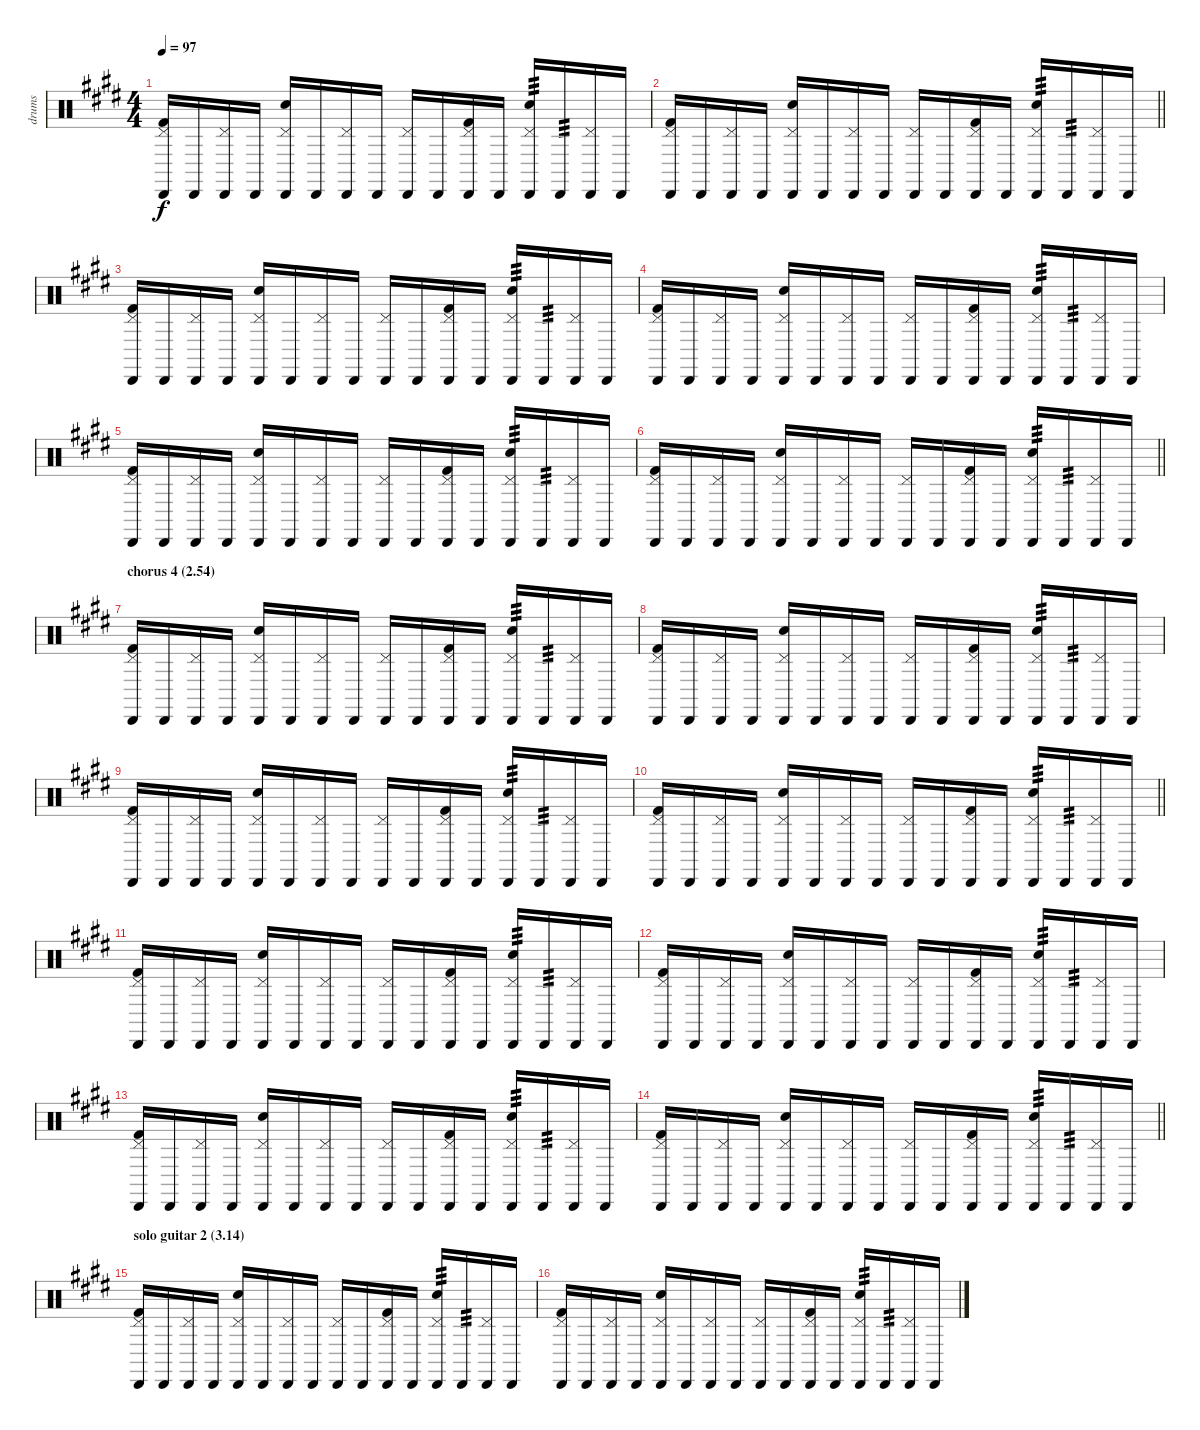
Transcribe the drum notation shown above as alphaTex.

\track ("drums" "drums") {instrument percussion}
\staff {score}
\articulation defaults
\ts (4 4)
\tempo 97
\clef neutral
\ks e
("Pedal Hi-Hat (hit)" "Cabasa (hit)" "Kick (hit) 2").16{dy f} "Cabasa (hit)".16 ("Pedal Hi-Hat (hit)" "Cabasa (hit)").16 "Cabasa (hit)".16 ("Pedal Hi-Hat (hit)" "Cabasa (hit)" "Electric Snare (hit)").16 "Cabasa (hit)".16 ("Pedal Hi-Hat (hit)" "Cabasa (hit)").16 "Cabasa (hit)".16 ("Pedal Hi-Hat (hit)" "Cabasa (hit)").16 "Cabasa (hit)".16 ("Pedal Hi-Hat (hit)" "Cabasa (hit)" "Kick (hit) 2").16 "Cabasa (hit)".16 ("Pedal Hi-Hat (hit)" "Cabasa (hit)" "Electric Snare (hit)").16{tp 3} "Cabasa (hit)".16{tp 3} ("Pedal Hi-Hat (hit)" "Cabasa (hit)").16 "Cabasa (hit)".16 |
\barLineRight lightlight
("Pedal Hi-Hat (hit)" "Cabasa (hit)" "Kick (hit) 2").16 "Cabasa (hit)".16 ("Pedal Hi-Hat (hit)" "Cabasa (hit)").16 "Cabasa (hit)".16 ("Pedal Hi-Hat (hit)" "Cabasa (hit)" "Electric Snare (hit)").16 "Cabasa (hit)".16 ("Pedal Hi-Hat (hit)" "Cabasa (hit)").16 "Cabasa (hit)".16 ("Pedal Hi-Hat (hit)" "Cabasa (hit)").16 "Cabasa (hit)".16 ("Pedal Hi-Hat (hit)" "Cabasa (hit)" "Kick (hit) 2").16 "Cabasa (hit)".16 ("Pedal Hi-Hat (hit)" "Cabasa (hit)" "Electric Snare (hit)").16{tp 3} "Cabasa (hit)".16{tp 3} ("Pedal Hi-Hat (hit)" "Cabasa (hit)").16 "Cabasa (hit)".16 |
("Pedal Hi-Hat (hit)" "Cabasa (hit)" "Kick (hit) 2").16 "Cabasa (hit)".16 ("Pedal Hi-Hat (hit)" "Cabasa (hit)").16 "Cabasa (hit)".16 ("Pedal Hi-Hat (hit)" "Cabasa (hit)" "Electric Snare (hit)").16 "Cabasa (hit)".16 ("Pedal Hi-Hat (hit)" "Cabasa (hit)").16 "Cabasa (hit)".16 ("Pedal Hi-Hat (hit)" "Cabasa (hit)").16 "Cabasa (hit)".16 ("Pedal Hi-Hat (hit)" "Cabasa (hit)" "Kick (hit) 2").16 "Cabasa (hit)".16 ("Pedal Hi-Hat (hit)" "Cabasa (hit)" "Electric Snare (hit)").16{tp 3} "Cabasa (hit)".16{tp 3} ("Pedal Hi-Hat (hit)" "Cabasa (hit)").16 "Cabasa (hit)".16 |
("Pedal Hi-Hat (hit)" "Cabasa (hit)" "Kick (hit) 2").16 "Cabasa (hit)".16 ("Pedal Hi-Hat (hit)" "Cabasa (hit)").16 "Cabasa (hit)".16 ("Pedal Hi-Hat (hit)" "Cabasa (hit)" "Electric Snare (hit)").16 "Cabasa (hit)".16 ("Pedal Hi-Hat (hit)" "Cabasa (hit)").16 "Cabasa (hit)".16 ("Pedal Hi-Hat (hit)" "Cabasa (hit)").16 "Cabasa (hit)".16 ("Pedal Hi-Hat (hit)" "Cabasa (hit)" "Kick (hit) 2").16 "Cabasa (hit)".16 ("Pedal Hi-Hat (hit)" "Cabasa (hit)" "Electric Snare (hit)").16{tp 3} "Cabasa (hit)".16{tp 3} ("Pedal Hi-Hat (hit)" "Cabasa (hit)").16 "Cabasa (hit)".16 |
("Pedal Hi-Hat (hit)" "Cabasa (hit)" "Kick (hit) 2").16 "Cabasa (hit)".16 ("Pedal Hi-Hat (hit)" "Cabasa (hit)").16 "Cabasa (hit)".16 ("Pedal Hi-Hat (hit)" "Cabasa (hit)" "Electric Snare (hit)").16 "Cabasa (hit)".16 ("Pedal Hi-Hat (hit)" "Cabasa (hit)").16 "Cabasa (hit)".16 ("Pedal Hi-Hat (hit)" "Cabasa (hit)").16 "Cabasa (hit)".16 ("Pedal Hi-Hat (hit)" "Cabasa (hit)" "Kick (hit) 2").16 "Cabasa (hit)".16 ("Pedal Hi-Hat (hit)" "Cabasa (hit)" "Electric Snare (hit)").16{tp 3} "Cabasa (hit)".16{tp 3} ("Pedal Hi-Hat (hit)" "Cabasa (hit)").16 "Cabasa (hit)".16 |
\barLineRight lightlight
("Pedal Hi-Hat (hit)" "Cabasa (hit)" "Kick (hit) 2").16 "Cabasa (hit)".16 ("Pedal Hi-Hat (hit)" "Cabasa (hit)").16 "Cabasa (hit)".16 ("Pedal Hi-Hat (hit)" "Cabasa (hit)" "Electric Snare (hit)").16 "Cabasa (hit)".16 ("Pedal Hi-Hat (hit)" "Cabasa (hit)").16 "Cabasa (hit)".16 ("Pedal Hi-Hat (hit)" "Cabasa (hit)").16 "Cabasa (hit)".16 ("Pedal Hi-Hat (hit)" "Cabasa (hit)" "Kick (hit) 2").16 "Cabasa (hit)".16 ("Pedal Hi-Hat (hit)" "Cabasa (hit)" "Electric Snare (hit)").16{tp 3} "Cabasa (hit)".16{tp 3} ("Pedal Hi-Hat (hit)" "Cabasa (hit)").16 "Cabasa (hit)".16 |
\section ("" "chorus 4 (2.54)")
("Pedal Hi-Hat (hit)" "Cabasa (hit)" "Kick (hit) 2").16 "Cabasa (hit)".16 ("Pedal Hi-Hat (hit)" "Cabasa (hit)").16 "Cabasa (hit)".16 ("Pedal Hi-Hat (hit)" "Cabasa (hit)" "Electric Snare (hit)").16 "Cabasa (hit)".16 ("Pedal Hi-Hat (hit)" "Cabasa (hit)").16 "Cabasa (hit)".16 ("Pedal Hi-Hat (hit)" "Cabasa (hit)").16 "Cabasa (hit)".16 ("Pedal Hi-Hat (hit)" "Cabasa (hit)" "Kick (hit) 2").16 "Cabasa (hit)".16 ("Pedal Hi-Hat (hit)" "Cabasa (hit)" "Electric Snare (hit)").16{tp 3} "Cabasa (hit)".16{tp 3} ("Pedal Hi-Hat (hit)" "Cabasa (hit)").16 "Cabasa (hit)".16 |
("Pedal Hi-Hat (hit)" "Cabasa (hit)" "Kick (hit) 2").16 "Cabasa (hit)".16 ("Pedal Hi-Hat (hit)" "Cabasa (hit)").16 "Cabasa (hit)".16 ("Pedal Hi-Hat (hit)" "Cabasa (hit)" "Electric Snare (hit)").16 "Cabasa (hit)".16 ("Pedal Hi-Hat (hit)" "Cabasa (hit)").16 "Cabasa (hit)".16 ("Pedal Hi-Hat (hit)" "Cabasa (hit)").16 "Cabasa (hit)".16 ("Pedal Hi-Hat (hit)" "Cabasa (hit)" "Kick (hit) 2").16 "Cabasa (hit)".16 ("Pedal Hi-Hat (hit)" "Cabasa (hit)" "Electric Snare (hit)").16{tp 3} "Cabasa (hit)".16{tp 3} ("Pedal Hi-Hat (hit)" "Cabasa (hit)").16 "Cabasa (hit)".16 |
("Pedal Hi-Hat (hit)" "Cabasa (hit)" "Kick (hit) 2").16 "Cabasa (hit)".16 ("Pedal Hi-Hat (hit)" "Cabasa (hit)").16 "Cabasa (hit)".16 ("Pedal Hi-Hat (hit)" "Cabasa (hit)" "Electric Snare (hit)").16 "Cabasa (hit)".16 ("Pedal Hi-Hat (hit)" "Cabasa (hit)").16 "Cabasa (hit)".16 ("Pedal Hi-Hat (hit)" "Cabasa (hit)").16 "Cabasa (hit)".16 ("Pedal Hi-Hat (hit)" "Cabasa (hit)" "Kick (hit) 2").16 "Cabasa (hit)".16 ("Pedal Hi-Hat (hit)" "Cabasa (hit)" "Electric Snare (hit)").16{tp 3} "Cabasa (hit)".16{tp 3} ("Pedal Hi-Hat (hit)" "Cabasa (hit)").16 "Cabasa (hit)".16 |
\barLineRight lightlight
("Pedal Hi-Hat (hit)" "Cabasa (hit)" "Kick (hit) 2").16 "Cabasa (hit)".16 ("Pedal Hi-Hat (hit)" "Cabasa (hit)").16 "Cabasa (hit)".16 ("Pedal Hi-Hat (hit)" "Cabasa (hit)" "Electric Snare (hit)").16 "Cabasa (hit)".16 ("Pedal Hi-Hat (hit)" "Cabasa (hit)").16 "Cabasa (hit)".16 ("Pedal Hi-Hat (hit)" "Cabasa (hit)").16 "Cabasa (hit)".16 ("Pedal Hi-Hat (hit)" "Cabasa (hit)" "Kick (hit) 2").16 "Cabasa (hit)".16 ("Pedal Hi-Hat (hit)" "Cabasa (hit)" "Electric Snare (hit)").16{tp 3} "Cabasa (hit)".16{tp 3} ("Pedal Hi-Hat (hit)" "Cabasa (hit)").16 "Cabasa (hit)".16 |
("Pedal Hi-Hat (hit)" "Cabasa (hit)" "Kick (hit) 2").16 "Cabasa (hit)".16 ("Pedal Hi-Hat (hit)" "Cabasa (hit)").16 "Cabasa (hit)".16 ("Pedal Hi-Hat (hit)" "Cabasa (hit)" "Electric Snare (hit)").16 "Cabasa (hit)".16 ("Pedal Hi-Hat (hit)" "Cabasa (hit)").16 "Cabasa (hit)".16 ("Pedal Hi-Hat (hit)" "Cabasa (hit)").16 "Cabasa (hit)".16 ("Pedal Hi-Hat (hit)" "Cabasa (hit)" "Kick (hit) 2").16 "Cabasa (hit)".16 ("Pedal Hi-Hat (hit)" "Cabasa (hit)" "Electric Snare (hit)").16{tp 3} "Cabasa (hit)".16{tp 3} ("Pedal Hi-Hat (hit)" "Cabasa (hit)").16 "Cabasa (hit)".16 |
("Pedal Hi-Hat (hit)" "Cabasa (hit)" "Kick (hit) 2").16 "Cabasa (hit)".16 ("Pedal Hi-Hat (hit)" "Cabasa (hit)").16 "Cabasa (hit)".16 ("Pedal Hi-Hat (hit)" "Cabasa (hit)" "Electric Snare (hit)").16 "Cabasa (hit)".16 ("Pedal Hi-Hat (hit)" "Cabasa (hit)").16 "Cabasa (hit)".16 ("Pedal Hi-Hat (hit)" "Cabasa (hit)").16 "Cabasa (hit)".16 ("Pedal Hi-Hat (hit)" "Cabasa (hit)" "Kick (hit) 2").16 "Cabasa (hit)".16 ("Pedal Hi-Hat (hit)" "Cabasa (hit)" "Electric Snare (hit)").16{tp 3} "Cabasa (hit)".16{tp 3} ("Pedal Hi-Hat (hit)" "Cabasa (hit)").16 "Cabasa (hit)".16 |
("Pedal Hi-Hat (hit)" "Cabasa (hit)" "Kick (hit) 2").16 "Cabasa (hit)".16 ("Pedal Hi-Hat (hit)" "Cabasa (hit)").16 "Cabasa (hit)".16 ("Pedal Hi-Hat (hit)" "Cabasa (hit)" "Electric Snare (hit)").16 "Cabasa (hit)".16 ("Pedal Hi-Hat (hit)" "Cabasa (hit)").16 "Cabasa (hit)".16 ("Pedal Hi-Hat (hit)" "Cabasa (hit)").16 "Cabasa (hit)".16 ("Pedal Hi-Hat (hit)" "Cabasa (hit)" "Kick (hit) 2").16 "Cabasa (hit)".16 ("Pedal Hi-Hat (hit)" "Cabasa (hit)" "Electric Snare (hit)").16{tp 3} "Cabasa (hit)".16{tp 3} ("Pedal Hi-Hat (hit)" "Cabasa (hit)").16 "Cabasa (hit)".16 |
\barLineRight lightlight
("Pedal Hi-Hat (hit)" "Cabasa (hit)" "Kick (hit) 2").16 "Cabasa (hit)".16 ("Pedal Hi-Hat (hit)" "Cabasa (hit)").16 "Cabasa (hit)".16 ("Pedal Hi-Hat (hit)" "Cabasa (hit)" "Electric Snare (hit)").16 "Cabasa (hit)".16 ("Pedal Hi-Hat (hit)" "Cabasa (hit)").16 "Cabasa (hit)".16 ("Pedal Hi-Hat (hit)" "Cabasa (hit)").16 "Cabasa (hit)".16 ("Pedal Hi-Hat (hit)" "Cabasa (hit)" "Kick (hit) 2").16 "Cabasa (hit)".16 ("Pedal Hi-Hat (hit)" "Cabasa (hit)" "Electric Snare (hit)").16{tp 3} "Cabasa (hit)".16{tp 3} ("Pedal Hi-Hat (hit)" "Cabasa (hit)").16 "Cabasa (hit)".16 |
\section ("" "solo guitar 2 (3.14)")
("Pedal Hi-Hat (hit)" "Cabasa (hit)" "Kick (hit) 2").16 "Cabasa (hit)".16 ("Pedal Hi-Hat (hit)" "Cabasa (hit)").16 "Cabasa (hit)".16 ("Pedal Hi-Hat (hit)" "Cabasa (hit)" "Electric Snare (hit)").16 "Cabasa (hit)".16 ("Pedal Hi-Hat (hit)" "Cabasa (hit)").16 "Cabasa (hit)".16 ("Pedal Hi-Hat (hit)" "Cabasa (hit)").16 "Cabasa (hit)".16 ("Pedal Hi-Hat (hit)" "Cabasa (hit)" "Kick (hit) 2").16 "Cabasa (hit)".16 ("Pedal Hi-Hat (hit)" "Cabasa (hit)" "Electric Snare (hit)").16{tp 3} "Cabasa (hit)".16{tp 3} ("Pedal Hi-Hat (hit)" "Cabasa (hit)").16 "Cabasa (hit)".16 |
("Pedal Hi-Hat (hit)" "Cabasa (hit)" "Kick (hit) 2").16 "Cabasa (hit)".16 ("Pedal Hi-Hat (hit)" "Cabasa (hit)").16 "Cabasa (hit)".16 ("Pedal Hi-Hat (hit)" "Cabasa (hit)" "Electric Snare (hit)").16 "Cabasa (hit)".16 ("Pedal Hi-Hat (hit)" "Cabasa (hit)").16 "Cabasa (hit)".16 ("Pedal Hi-Hat (hit)" "Cabasa (hit)").16 "Cabasa (hit)".16 ("Pedal Hi-Hat (hit)" "Cabasa (hit)" "Kick (hit) 2").16 "Cabasa (hit)".16 ("Pedal Hi-Hat (hit)" "Cabasa (hit)" "Electric Snare (hit)").16{tp 3} "Cabasa (hit)".16{tp 3} ("Pedal Hi-Hat (hit)" "Cabasa (hit)").16 "Cabasa (hit)".16
